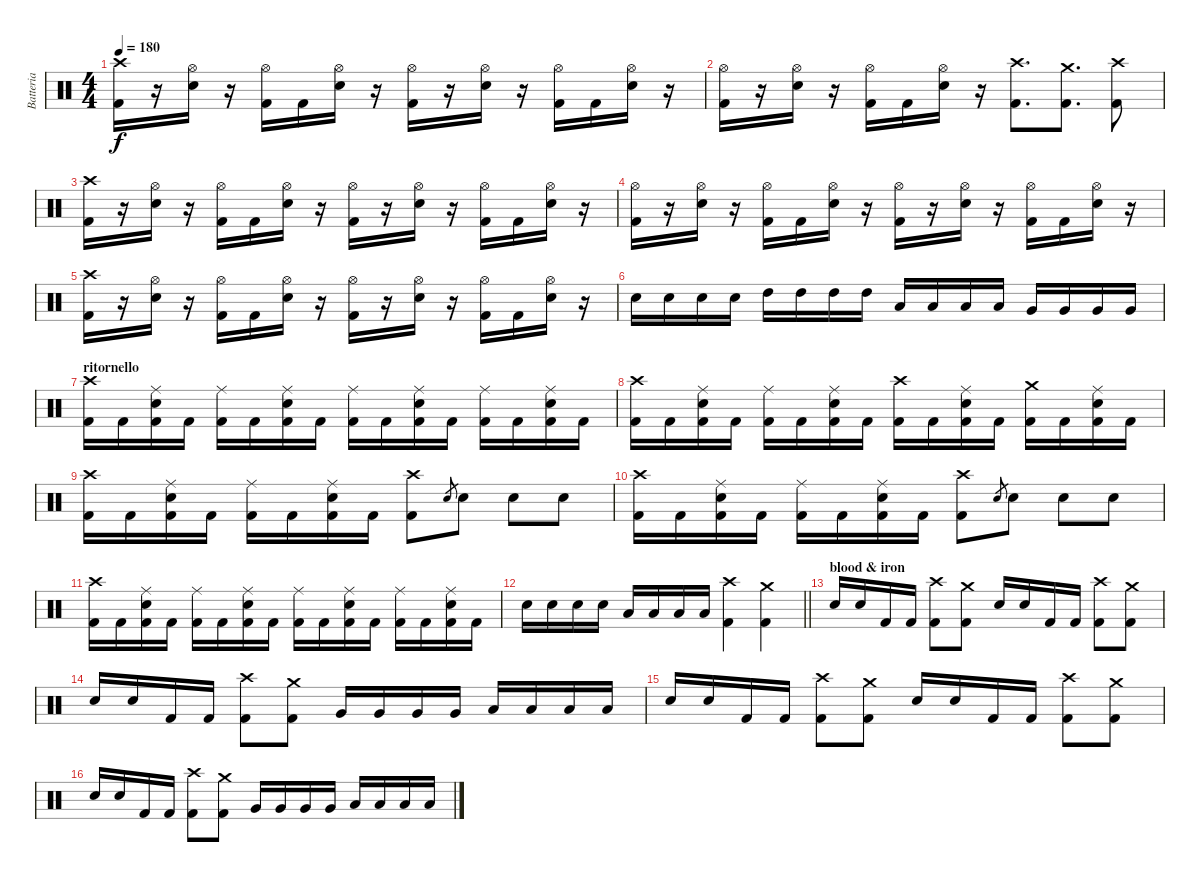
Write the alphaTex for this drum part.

\track ("Batteria" "Batteria") {instrument percussion}
\staff {score}
\articulation defaults
\ts (4 4)
\tempo 180
\clef neutral
\ks c
("Crash high (hit)" "Kick (hit) 2").16{dy f} r.16 ("Hi-Hat (open)" "Snare (hit) 2").16 r.16 ("Hi-Hat (open)" "Kick (hit) 2").16 "Kick (hit) 2".16 ("Hi-Hat (open)" "Snare (hit) 2").16 r.16 ("Hi-Hat (open)" "Kick (hit) 2").16 r.16 ("Hi-Hat (open)" "Snare (hit) 2").16 r.16 ("Hi-Hat (open)" "Kick (hit) 2").16 "Kick (hit) 2".16 ("Hi-Hat (open)" "Snare (hit) 2").16 r.16 |
("Hi-Hat (open)" "Kick (hit) 2").16 r.16 ("Hi-Hat (open)" "Snare (hit) 2").16 r.16 ("Hi-Hat (open)" "Kick (hit) 2").16 "Kick (hit) 2".16 ("Hi-Hat (open)" "Snare (hit) 2").16 r.16 ("Crash high (hit)" "Kick (hit) 2").8{d} ("Crash medium (hit)" "Kick (hit) 2").8{d} ("Crash high (hit)" "Kick (hit) 2").8 |
("Crash high (hit)" "Kick (hit) 2").16 r.16 ("Hi-Hat (open)" "Snare (hit) 2").16 r.16 ("Hi-Hat (open)" "Kick (hit) 2").16 "Kick (hit) 2".16 ("Hi-Hat (open)" "Snare (hit) 2").16 r.16 ("Hi-Hat (open)" "Kick (hit) 2").16 r.16 ("Hi-Hat (open)" "Snare (hit) 2").16 r.16 ("Hi-Hat (open)" "Kick (hit) 2").16 "Kick (hit) 2".16 ("Hi-Hat (open)" "Snare (hit) 2").16 r.16 |
("Hi-Hat (open)" "Kick (hit) 2").16 r.16 ("Hi-Hat (open)" "Snare (hit) 2").16 r.16 ("Hi-Hat (open)" "Kick (hit) 2").16 "Kick (hit) 2".16 ("Hi-Hat (open)" "Snare (hit) 2").16 r.16 ("Hi-Hat (open)" "Kick (hit) 2").16 r.16 ("Hi-Hat (open)" "Snare (hit) 2").16 r.16 ("Hi-Hat (open)" "Kick (hit) 2").16 "Kick (hit) 2".16 ("Hi-Hat (open)" "Snare (hit) 2").16 r.16 |
("Crash high (hit)" "Kick (hit) 2").16 r.16 ("Hi-Hat (open)" "Snare (hit) 2").16 r.16 ("Hi-Hat (open)" "Kick (hit) 2").16 "Kick (hit) 2".16 ("Hi-Hat (open)" "Snare (hit) 2").16 r.16 ("Hi-Hat (open)" "Kick (hit) 2").16 r.16 ("Hi-Hat (open)" "Snare (hit) 2").16 r.16 ("Hi-Hat (open)" "Kick (hit) 2").16 "Kick (hit) 2".16 ("Hi-Hat (open)" "Snare (hit) 2").16 r.16 |
"Snare (hit) 2".16 "Snare (hit) 2".16 "Snare (hit) 2".16 "Snare (hit) 2".16 "High Tom (hit)".16 "High Tom (hit)".16 "High Tom (hit)".16 "High Tom (hit)".16 "Low Tom (hit)".16 "Low Tom (hit)".16 "Low Tom (hit)".16 "Low Tom (hit)".16 "Very Low Tom (hit)".16 "Very Low Tom (hit)".16 "Very Low Tom (hit)".16 "Very Low Tom (hit)".16 |
\section ("" "ritornello")
("Crash high (hit)" "Kick (hit) 2").16 "Kick (hit) 2".16 ("Ride (middle)" "Snare (hit) 2" "Kick (hit) 2").16 "Kick (hit) 2".16 ("Ride (middle)" "Kick (hit) 2").16 "Kick (hit) 2".16 ("Ride (middle)" "Snare (hit) 2" "Kick (hit) 2").16 "Kick (hit) 2".16 ("Ride (middle)" "Kick (hit) 2").16 "Kick (hit) 2".16 ("Ride (middle)" "Snare (hit) 2" "Kick (hit) 2").16 "Kick (hit) 2".16 ("Ride (middle)" "Kick (hit) 2").16 "Kick (hit) 2".16 ("Ride (middle)" "Snare (hit) 2" "Kick (hit) 2").16 "Kick (hit) 2".16 |
("Crash high (hit)" "Kick (hit) 2").16 "Kick (hit) 2".16 ("Ride (middle)" "Snare (hit) 2" "Kick (hit) 2").16 "Kick (hit) 2".16 ("Ride (middle)" "Kick (hit) 2").16 "Kick (hit) 2".16 ("Ride (middle)" "Snare (hit) 2" "Kick (hit) 2").16 "Kick (hit) 2".16 ("Crash high (hit)" "Kick (hit) 2").16 "Kick (hit) 2".16 ("Ride (middle)" "Snare (hit) 2" "Kick (hit) 2").16 "Kick (hit) 2".16 ("Crash medium (hit)" "Kick (hit) 2").16 "Kick (hit) 2".16 ("Ride (middle)" "Snare (hit) 2" "Kick (hit) 2").16 "Kick (hit) 2".16 |
("Crash high (hit)" "Kick (hit) 2").16 "Kick (hit) 2".16 ("Ride (middle)" "Snare (hit) 2" "Kick (hit) 2").16 "Kick (hit) 2".16 ("Ride (middle)" "Kick (hit) 2").16 "Kick (hit) 2".16 ("Ride (middle)" "Snare (hit) 2" "Kick (hit) 2").16 "Kick (hit) 2".16 ("Crash high (hit)" "Kick (hit) 2").8 "Snare (hit) 2".8{gr} "Snare (hit) 2".8 "Snare (hit) 2".8 "Snare (hit) 2".8 |
("Crash high (hit)" "Kick (hit) 2").16 "Kick (hit) 2".16 ("Ride (middle)" "Snare (hit) 2" "Kick (hit) 2").16 "Kick (hit) 2".16 ("Ride (middle)" "Kick (hit) 2").16 "Kick (hit) 2".16 ("Ride (middle)" "Snare (hit) 2" "Kick (hit) 2").16 "Kick (hit) 2".16 ("Crash high (hit)" "Kick (hit) 2").8 "Snare (hit) 2".8{gr} "Snare (hit) 2".8 "Snare (hit) 2".8 "Snare (hit) 2".8 |
("Crash high (hit)" "Kick (hit) 2").16 "Kick (hit) 2".16 ("Ride (middle)" "Snare (hit) 2" "Kick (hit) 2").16 "Kick (hit) 2".16 ("Ride (middle)" "Kick (hit) 2").16 "Kick (hit) 2".16 ("Ride (middle)" "Snare (hit) 2" "Kick (hit) 2").16 "Kick (hit) 2".16 ("Ride (middle)" "Kick (hit) 2").16 "Kick (hit) 2".16 ("Ride (middle)" "Snare (hit) 2" "Kick (hit) 2").16 "Kick (hit) 2".16 ("Ride (middle)" "Kick (hit) 2").16 "Kick (hit) 2".16 ("Ride (middle)" "Snare (hit) 2" "Kick (hit) 2").16 "Kick (hit) 2".16 |
\barLineRight lightlight "Snare (hit) 2".16 "Snare (hit) 2".16 "Snare (hit) 2".16 "Snare (hit) 2".16 "Low Floor Tom (hit)".16 "Low Floor Tom (hit)".16 "Low Floor Tom (hit)".16 "Low Floor Tom (hit)".16
("Crash high (hit)" "Kick (hit) 2").4 ("Crash medium (hit)" "Kick (hit) 2").4 |
\section ("" "blood & iron")
"Snare (hit) 2".16 "Snare (hit) 2".16 "Kick (hit) 2".16 "Kick (hit) 2".16 ("Crash high (hit)" "Kick (hit) 2").8 ("Crash medium (hit)" "Kick (hit) 2").8 "Snare (hit) 2".16 "Snare (hit) 2".16 "Kick (hit) 2".16 "Kick (hit) 2".16 ("Crash high (hit)" "Kick (hit) 2").8 ("Crash medium (hit)" "Kick (hit) 2").8 |
"Snare (hit) 2".16 "Snare (hit) 2".16 "Kick (hit) 2".16 "Kick (hit) 2".16 ("Crash high (hit)" "Kick (hit) 2").8 ("Crash medium (hit)" "Kick (hit) 2").8 "Very Low Tom (hit)".16 "Very Low Tom (hit)".16 "Very Low Tom (hit)".16 "Very Low Tom (hit)".16 "Low Floor Tom (hit)".16 "Low Floor Tom (hit)".16 "Low Floor Tom (hit)".16 "Low Floor Tom (hit)".16 |
"Snare (hit) 2".16 "Snare (hit) 2".16 "Kick (hit) 2".16 "Kick (hit) 2".16 ("Crash high (hit)" "Kick (hit) 2").8 ("Crash medium (hit)" "Kick (hit) 2").8 "Snare (hit) 2".16 "Snare (hit) 2".16 "Kick (hit) 2".16 "Kick (hit) 2".16 ("Crash high (hit)" "Kick (hit) 2").8 ("Crash medium (hit)" "Kick (hit) 2").8 |
"Snare (hit) 2".16 "Snare (hit) 2".16 "Kick (hit) 2".16 "Kick (hit) 2".16 ("Crash high (hit)" "Kick (hit) 2").8 ("Crash medium (hit)" "Kick (hit) 2").8 "Very Low Tom (hit)".16 "Very Low Tom (hit)".16 "Very Low Tom (hit)".16 "Very Low Tom (hit)".16 "Low Floor Tom (hit)".16 "Low Floor Tom (hit)".16 "Low Floor Tom (hit)".16 "Low Floor Tom (hit)".16
